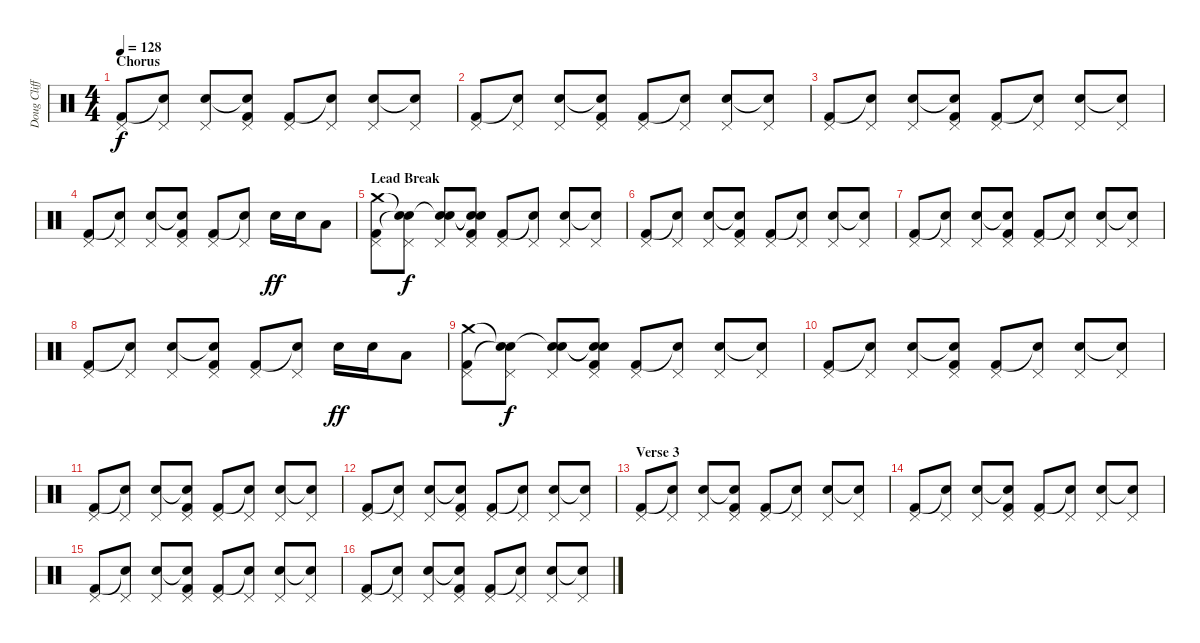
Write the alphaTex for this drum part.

\track ("Doug Clifford" "Doug Cliff") {instrument percussion}
\staff {score}
\articulation defaults
\ts (4 4)
\section ("" "Chorus")
\tempo 128
\clef neutral
\ks c
("Pedal Hi-Hat (hit)" "Kick (hit) 2").8{dy f} ("Pedal Hi-Hat (hit)" "Snare (hit)"{t}).8 ("Pedal Hi-Hat (hit)" "Snare (hit) 2").8 ("Pedal Hi-Hat (hit)" "Snare (hit)"{t} "Kick (hit) 2").8 ("Pedal Hi-Hat (hit)" "Kick (hit) 2").8 ("Pedal Hi-Hat (hit)" "Snare (hit)"{t}).8 ("Pedal Hi-Hat (hit)" "Snare (hit) 2").8 ("Pedal Hi-Hat (hit)" "Snare (hit)"{t}).8 |
("Pedal Hi-Hat (hit)" "Kick (hit) 2").8 ("Pedal Hi-Hat (hit)" "Snare (hit)"{t}).8 ("Pedal Hi-Hat (hit)" "Snare (hit) 2").8 ("Pedal Hi-Hat (hit)" "Snare (hit)"{t} "Kick (hit) 2").8 ("Pedal Hi-Hat (hit)" "Kick (hit) 2").8 ("Pedal Hi-Hat (hit)" "Snare (hit)"{t}).8 ("Pedal Hi-Hat (hit)" "Snare (hit) 2").8 ("Pedal Hi-Hat (hit)" "Snare (hit)"{t}).8 |
("Pedal Hi-Hat (hit)" "Kick (hit) 2").8 ("Pedal Hi-Hat (hit)" "Snare (hit)"{t}).8 ("Pedal Hi-Hat (hit)" "Snare (hit) 2").8 ("Pedal Hi-Hat (hit)" "Snare (hit)"{t} "Kick (hit) 2").8 ("Pedal Hi-Hat (hit)" "Kick (hit) 2").8 ("Pedal Hi-Hat (hit)" "Snare (hit)"{t}).8 ("Pedal Hi-Hat (hit)" "Snare (hit) 2").8 ("Pedal Hi-Hat (hit)" "Snare (hit)"{t}).8 |
("Pedal Hi-Hat (hit)" "Kick (hit) 2").8 ("Pedal Hi-Hat (hit)" "Snare (hit)"{t}).8 ("Pedal Hi-Hat (hit)" "Snare (hit) 2").8 ("Pedal Hi-Hat (hit)" "Snare (hit)"{t} "Kick (hit) 2").8 ("Pedal Hi-Hat (hit)" "Kick (hit) 2").8 ("Pedal Hi-Hat (hit)" "Snare (hit)"{t}).8 "Snare (hit) 2".16{dy ff} "Snare (hit) 2".16 "Low Tom (hit)".8 |
\section ("" "Lead Break")
("Crash medium (hit)" "Pedal Hi-Hat (hit)" "Kick (hit) 2").8 ("Snare (hit)"{t} "Pedal Hi-Hat (hit)" "Snare (hit)"{t}).8{dy f} ("Snare (hit)"{t} "Pedal Hi-Hat (hit)" "Snare (hit) 2").8 ("Snare (hit)"{t} "Pedal Hi-Hat (hit)" "Snare (hit)"{t} "Kick (hit) 2").8 ("Pedal Hi-Hat (hit)" "Kick (hit) 2").8 ("Pedal Hi-Hat (hit)" "Snare (hit)"{t}).8 ("Pedal Hi-Hat (hit)" "Snare (hit) 2").8 ("Pedal Hi-Hat (hit)" "Snare (hit)"{t}).8 |
("Pedal Hi-Hat (hit)" "Kick (hit) 2").8 ("Pedal Hi-Hat (hit)" "Snare (hit)"{t}).8 ("Pedal Hi-Hat (hit)" "Snare (hit) 2").8 ("Pedal Hi-Hat (hit)" "Snare (hit)"{t} "Kick (hit) 2").8 ("Pedal Hi-Hat (hit)" "Kick (hit) 2").8 ("Pedal Hi-Hat (hit)" "Snare (hit)"{t}).8 ("Pedal Hi-Hat (hit)" "Snare (hit) 2").8 ("Pedal Hi-Hat (hit)" "Snare (hit)"{t}).8 |
("Pedal Hi-Hat (hit)" "Kick (hit) 2").8 ("Pedal Hi-Hat (hit)" "Snare (hit)"{t}).8 ("Pedal Hi-Hat (hit)" "Snare (hit) 2").8 ("Pedal Hi-Hat (hit)" "Snare (hit)"{t} "Kick (hit) 2").8 ("Pedal Hi-Hat (hit)" "Kick (hit) 2").8 ("Pedal Hi-Hat (hit)" "Snare (hit)"{t}).8 ("Pedal Hi-Hat (hit)" "Snare (hit) 2").8 ("Pedal Hi-Hat (hit)" "Snare (hit)"{t}).8 |
("Pedal Hi-Hat (hit)" "Kick (hit) 2").8 ("Pedal Hi-Hat (hit)" "Snare (hit)"{t}).8 ("Pedal Hi-Hat (hit)" "Snare (hit) 2").8 ("Pedal Hi-Hat (hit)" "Snare (hit)"{t} "Kick (hit) 2").8 ("Pedal Hi-Hat (hit)" "Kick (hit) 2").8 ("Pedal Hi-Hat (hit)" "Snare (hit)"{t}).8 "Snare (hit) 2".16{dy ff} "Snare (hit) 2".16 "Low Tom (hit)".8 |
("Crash medium (hit)" "Pedal Hi-Hat (hit)" "Kick (hit) 2").8 ("Snare (hit)"{t} "Pedal Hi-Hat (hit)" "Snare (hit)"{t}).8{dy f} ("Snare (hit)"{t} "Pedal Hi-Hat (hit)" "Snare (hit) 2").8 ("Snare (hit)"{t} "Pedal Hi-Hat (hit)" "Snare (hit)"{t} "Kick (hit) 2").8 ("Pedal Hi-Hat (hit)" "Kick (hit) 2").8 ("Pedal Hi-Hat (hit)" "Snare (hit)"{t}).8 ("Pedal Hi-Hat (hit)" "Snare (hit) 2").8 ("Pedal Hi-Hat (hit)" "Snare (hit)"{t}).8 |
("Pedal Hi-Hat (hit)" "Kick (hit) 2").8 ("Pedal Hi-Hat (hit)" "Snare (hit)"{t}).8 ("Pedal Hi-Hat (hit)" "Snare (hit) 2").8 ("Pedal Hi-Hat (hit)" "Snare (hit)"{t} "Kick (hit) 2").8 ("Pedal Hi-Hat (hit)" "Kick (hit) 2").8 ("Pedal Hi-Hat (hit)" "Snare (hit)"{t}).8 ("Pedal Hi-Hat (hit)" "Snare (hit) 2").8 ("Pedal Hi-Hat (hit)" "Snare (hit)"{t}).8 |
("Pedal Hi-Hat (hit)" "Kick (hit) 2").8 ("Pedal Hi-Hat (hit)" "Snare (hit)"{t}).8 ("Pedal Hi-Hat (hit)" "Snare (hit) 2").8 ("Pedal Hi-Hat (hit)" "Snare (hit)"{t} "Kick (hit) 2").8 ("Pedal Hi-Hat (hit)" "Kick (hit) 2").8 ("Pedal Hi-Hat (hit)" "Snare (hit)"{t}).8 ("Pedal Hi-Hat (hit)" "Snare (hit) 2").8 ("Pedal Hi-Hat (hit)" "Snare (hit)"{t}).8 |
("Pedal Hi-Hat (hit)" "Kick (hit) 2").8 ("Pedal Hi-Hat (hit)" "Snare (hit)"{t}).8 ("Pedal Hi-Hat (hit)" "Snare (hit) 2").8 ("Pedal Hi-Hat (hit)" "Snare (hit)"{t} "Kick (hit) 2").8 ("Pedal Hi-Hat (hit)" "Kick (hit) 2").8 ("Pedal Hi-Hat (hit)" "Snare (hit)"{t}).8 ("Pedal Hi-Hat (hit)" "Snare (hit) 2").8 ("Pedal Hi-Hat (hit)" "Snare (hit)"{t}).8 |
\section ("" "Verse 3")
("Pedal Hi-Hat (hit)" "Kick (hit) 2").8 ("Pedal Hi-Hat (hit)" "Snare (hit)"{t}).8 ("Pedal Hi-Hat (hit)" "Snare (hit) 2").8 ("Pedal Hi-Hat (hit)" "Snare (hit)"{t} "Kick (hit) 2").8 ("Pedal Hi-Hat (hit)" "Kick (hit) 2").8 ("Pedal Hi-Hat (hit)" "Snare (hit)"{t}).8 ("Pedal Hi-Hat (hit)" "Snare (hit) 2").8 ("Pedal Hi-Hat (hit)" "Snare (hit)"{t}).8 |
("Pedal Hi-Hat (hit)" "Kick (hit) 2").8 ("Pedal Hi-Hat (hit)" "Snare (hit)"{t}).8 ("Pedal Hi-Hat (hit)" "Snare (hit) 2").8 ("Pedal Hi-Hat (hit)" "Snare (hit)"{t} "Kick (hit) 2").8 ("Pedal Hi-Hat (hit)" "Kick (hit) 2").8 ("Pedal Hi-Hat (hit)" "Snare (hit)"{t}).8 ("Pedal Hi-Hat (hit)" "Snare (hit) 2").8 ("Pedal Hi-Hat (hit)" "Snare (hit)"{t}).8 |
("Pedal Hi-Hat (hit)" "Kick (hit) 2").8 ("Pedal Hi-Hat (hit)" "Snare (hit)"{t}).8 ("Pedal Hi-Hat (hit)" "Snare (hit) 2").8 ("Pedal Hi-Hat (hit)" "Snare (hit)"{t} "Kick (hit) 2").8 ("Pedal Hi-Hat (hit)" "Kick (hit) 2").8 ("Pedal Hi-Hat (hit)" "Snare (hit)"{t}).8 ("Pedal Hi-Hat (hit)" "Snare (hit) 2").8 ("Pedal Hi-Hat (hit)" "Snare (hit)"{t}).8 |
("Pedal Hi-Hat (hit)" "Kick (hit) 2").8 ("Pedal Hi-Hat (hit)" "Snare (hit)"{t}).8 ("Pedal Hi-Hat (hit)" "Snare (hit) 2").8 ("Pedal Hi-Hat (hit)" "Snare (hit)"{t} "Kick (hit) 2").8 ("Pedal Hi-Hat (hit)" "Kick (hit) 2").8 ("Pedal Hi-Hat (hit)" "Snare (hit)"{t}).8 ("Pedal Hi-Hat (hit)" "Snare (hit) 2").8 ("Pedal Hi-Hat (hit)" "Snare (hit)"{t}).8
